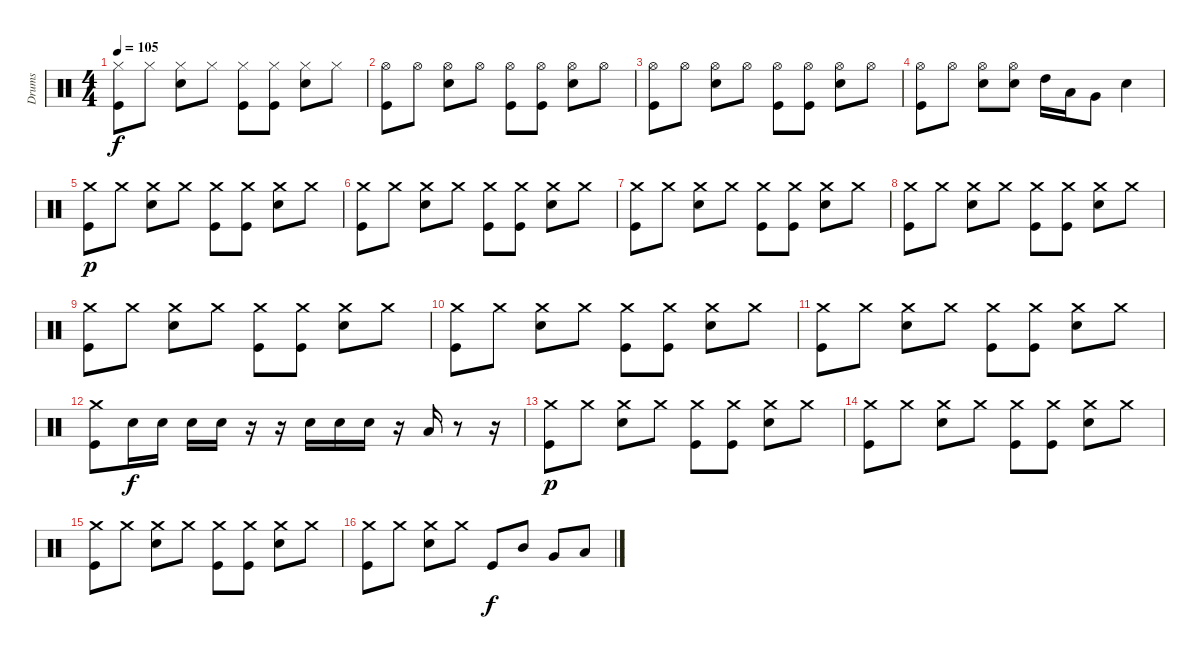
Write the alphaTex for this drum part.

\track ("Drums" "Drums") {instrument percussion}
\staff {score}
\articulation defaults
\ts (4 4)
\tempo 105
\clef neutral
\ks c
("Hi-Hat (closed)" "Kick (hit)").8{dy f} "Hi-Hat (closed)".8 ("Hi-Hat (closed)" "Electric Snare (hit)").8 "Hi-Hat (closed)".8 ("Hi-Hat (closed)" "Kick (hit)").8 ("Hi-Hat (closed)" "Kick (hit)").8 ("Hi-Hat (closed)" "Electric Snare (hit)").8 "Hi-Hat (closed)".8 |
("Hi-Hat (open)" "Kick (hit)").8 "Hi-Hat (open)".8 ("Hi-Hat (open)" "Electric Snare (hit)").8 "Hi-Hat (open)".8 ("Hi-Hat (open)" "Kick (hit)").8 ("Hi-Hat (open)" "Kick (hit)").8 ("Hi-Hat (open)" "Electric Snare (hit)").8 "Hi-Hat (open)".8 |
("Hi-Hat (open)" "Kick (hit)").8 "Hi-Hat (open)".8 ("Hi-Hat (open)" "Electric Snare (hit)").8 "Hi-Hat (open)".8 ("Hi-Hat (open)" "Kick (hit)").8 ("Hi-Hat (open)" "Kick (hit)").8 ("Hi-Hat (open)" "Electric Snare (hit)").8 "Hi-Hat (open)".8 |
("Hi-Hat (open)" "Kick (hit)").8 "Hi-Hat (open)".8 ("Hi-Hat (open)" "Electric Snare (hit)").8 ("Hi-Hat (open)" "Electric Snare (hit)").8 "High Tom (hit)".16 "Low Tom (hit)".16 "Very Low Tom (hit)".8 "Electric Snare (hit)".4 |
("Crash medium (hit)" "Kick (hit)").8{dy p} "Crash medium (hit)".8 ("Crash medium (hit)" "Electric Snare (hit)").8 "Crash medium (hit)".8 ("Crash medium (hit)" "Kick (hit)").8 ("Crash medium (hit)" "Kick (hit)").8 ("Crash medium (hit)" "Electric Snare (hit)").8 "Crash medium (hit)".8 |
("Crash medium (hit)" "Kick (hit)").8 "Crash medium (hit)".8 ("Crash medium (hit)" "Electric Snare (hit)").8 "Crash medium (hit)".8 ("Crash medium (hit)" "Kick (hit)").8 ("Crash medium (hit)" "Kick (hit)").8 ("Crash medium (hit)" "Electric Snare (hit)").8 "Crash medium (hit)".8 |
("Crash medium (hit)" "Kick (hit)").8 "Crash medium (hit)".8 ("Crash medium (hit)" "Electric Snare (hit)").8 "Crash medium (hit)".8 ("Crash medium (hit)" "Kick (hit)").8 ("Crash medium (hit)" "Kick (hit)").8 ("Crash medium (hit)" "Electric Snare (hit)").8 "Crash medium (hit)".8 |
("Crash medium (hit)" "Kick (hit)").8 "Crash medium (hit)".8 ("Crash medium (hit)" "Electric Snare (hit)").8 "Crash medium (hit)".8 ("Crash medium (hit)" "Kick (hit)").8 ("Crash medium (hit)" "Kick (hit)").8 ("Crash medium (hit)" "Electric Snare (hit)").8 "Crash medium (hit)".8 |
("Crash medium (hit)" "Kick (hit)").8 "Crash medium (hit)".8 ("Crash medium (hit)" "Electric Snare (hit)").8 "Crash medium (hit)".8 ("Crash medium (hit)" "Kick (hit)").8 ("Crash medium (hit)" "Kick (hit)").8 ("Crash medium (hit)" "Electric Snare (hit)").8 "Crash medium (hit)".8 |
("Crash medium (hit)" "Kick (hit)").8 "Crash medium (hit)".8 ("Crash medium (hit)" "Electric Snare (hit)").8 "Crash medium (hit)".8 ("Crash medium (hit)" "Kick (hit)").8 ("Crash medium (hit)" "Kick (hit)").8 ("Crash medium (hit)" "Electric Snare (hit)").8 "Crash medium (hit)".8 |
("Crash medium (hit)" "Kick (hit)").8 "Crash medium (hit)".8 ("Crash medium (hit)" "Electric Snare (hit)").8 "Crash medium (hit)".8 ("Crash medium (hit)" "Kick (hit)").8 ("Crash medium (hit)" "Kick (hit)").8 ("Crash medium (hit)" "Electric Snare (hit)").8 "Crash medium (hit)".8 |
("Crash medium (hit)" "Kick (hit)").8 "Electric Snare (hit)".16{dy f} "Electric Snare (hit)".16 "Electric Snare (hit)".16 "Electric Snare (hit)".16 r.16 r.16 "Electric Snare (hit)".16 "Electric Snare (hit)".16 "Electric Snare (hit)".16 r.16 "Low Tom (hit)".16 r.8 r.16 |
("Crash medium (hit)" "Kick (hit)").8{dy p} "Crash medium (hit)".8 ("Crash medium (hit)" "Electric Snare (hit)").8 "Crash medium (hit)".8 ("Crash medium (hit)" "Kick (hit)").8 ("Crash medium (hit)" "Kick (hit)").8 ("Crash medium (hit)" "Electric Snare (hit)").8 "Crash medium (hit)".8 |
("Crash medium (hit)" "Kick (hit)").8 "Crash medium (hit)".8 ("Crash medium (hit)" "Electric Snare (hit)").8 "Crash medium (hit)".8 ("Crash medium (hit)" "Kick (hit)").8 ("Crash medium (hit)" "Kick (hit)").8 ("Crash medium (hit)" "Electric Snare (hit)").8 "Crash medium (hit)".8 |
("Crash medium (hit)" "Kick (hit)").8 "Crash medium (hit)".8 ("Crash medium (hit)" "Electric Snare (hit)").8 "Crash medium (hit)".8 ("Crash medium (hit)" "Kick (hit)").8 ("Crash medium (hit)" "Kick (hit)").8 ("Crash medium (hit)" "Electric Snare (hit)").8 "Crash medium (hit)".8 |
("Crash medium (hit)" "Kick (hit)").8 "Crash medium (hit)".8 ("Crash medium (hit)" "Electric Snare (hit)").8 "Crash medium (hit)".8 "Kick (hit)".8{dy f} "Mid Tom (hit)".8 "Very Low Tom (hit)".8 "Low Floor Tom (hit)".8
